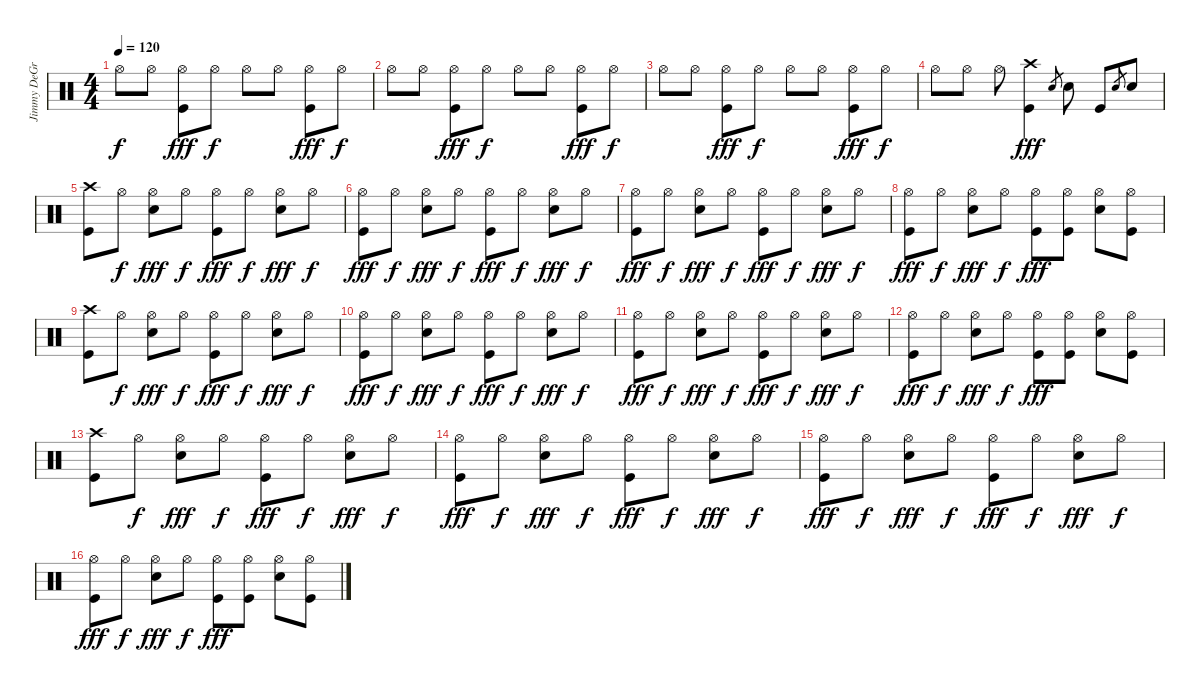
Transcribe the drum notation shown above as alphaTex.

\track ("Jimmy DeGrasso" "Jimmy DeGr") {instrument percussion}
\staff {score}
\articulation defaults
\ts (4 4)
\tempo 120
\clef neutral
\ks c "Hi-Hat (open)".8{dy f} "Hi-Hat (open)".8
("Kick (hit)" "Hi-Hat (open)").8{dy fff} "Hi-Hat (open)".8{dy f} "Hi-Hat (open)".8 "Hi-Hat (open)".8 ("Kick (hit)" "Hi-Hat (open)").8{dy fff} "Hi-Hat (open)".8{dy f} |
"Hi-Hat (open)".8 "Hi-Hat (open)".8 ("Kick (hit)" "Hi-Hat (open)").8{dy fff} "Hi-Hat (open)".8{dy f} "Hi-Hat (open)".8 "Hi-Hat (open)".8 ("Kick (hit)" "Hi-Hat (open)").8{dy fff} "Hi-Hat (open)".8{dy f} |
"Hi-Hat (open)".8 "Hi-Hat (open)".8 ("Kick (hit)" "Hi-Hat (open)").8{dy fff} "Hi-Hat (open)".8{dy f} "Hi-Hat (open)".8 "Hi-Hat (open)".8 ("Kick (hit)" "Hi-Hat (open)").8{dy fff} "Hi-Hat (open)".8{dy f} |
"Hi-Hat (open)".8 "Hi-Hat (open)".8 "Hi-Hat (open)".8 ("Kick (hit)" "Crash high (hit)").4{dy fff} "Electric Snare (hit)".8{gr} "Electric Snare (hit)".8 "Kick (hit)".8 "Electric Snare (hit)".8{gr} "Electric Snare (hit)".8 |
("Kick (hit)" "Crash high (hit)").8 "Hi-Hat (open)".8{dy f} ("Electric Snare (hit)" "Hi-Hat (open)").8{dy fff} "Hi-Hat (open)".8{dy f} ("Kick (hit)" "Hi-Hat (open)").8{dy fff} "Hi-Hat (open)".8{dy f} ("Electric Snare (hit)" "Hi-Hat (open)").8{dy fff} "Hi-Hat (open)".8{dy f} |
("Kick (hit)" "Hi-Hat (open)").8{dy fff} "Hi-Hat (open)".8{dy f} ("Electric Snare (hit)" "Hi-Hat (open)").8{dy fff} "Hi-Hat (open)".8{dy f} ("Kick (hit)" "Hi-Hat (open)").8{dy fff} "Hi-Hat (open)".8{dy f} ("Electric Snare (hit)" "Hi-Hat (open)").8{dy fff} "Hi-Hat (open)".8{dy f} |
("Kick (hit)" "Hi-Hat (open)").8{dy fff} "Hi-Hat (open)".8{dy f} ("Electric Snare (hit)" "Hi-Hat (open)").8{dy fff} "Hi-Hat (open)".8{dy f} ("Kick (hit)" "Hi-Hat (open)").8{dy fff} "Hi-Hat (open)".8{dy f} ("Electric Snare (hit)" "Hi-Hat (open)").8{dy fff} "Hi-Hat (open)".8{dy f} |
("Kick (hit)" "Hi-Hat (open)").8{dy fff} "Hi-Hat (open)".8{dy f} ("Electric Snare (hit)" "Hi-Hat (open)").8{dy fff} "Hi-Hat (open)".8{dy f} ("Kick (hit)" "Hi-Hat (open)").8{dy fff} ("Kick (hit)" "Hi-Hat (open)").8 ("Electric Snare (hit)" "Hi-Hat (open)").8 ("Kick (hit)" "Hi-Hat (open)").8 |
("Kick (hit)" "Crash high (hit)").8 "Hi-Hat (open)".8{dy f} ("Electric Snare (hit)" "Hi-Hat (open)").8{dy fff} "Hi-Hat (open)".8{dy f} ("Kick (hit)" "Hi-Hat (open)").8{dy fff} "Hi-Hat (open)".8{dy f} ("Electric Snare (hit)" "Hi-Hat (open)").8{dy fff} "Hi-Hat (open)".8{dy f} |
("Kick (hit)" "Hi-Hat (open)").8{dy fff} "Hi-Hat (open)".8{dy f} ("Electric Snare (hit)" "Hi-Hat (open)").8{dy fff} "Hi-Hat (open)".8{dy f} ("Kick (hit)" "Hi-Hat (open)").8{dy fff} "Hi-Hat (open)".8{dy f} ("Electric Snare (hit)" "Hi-Hat (open)").8{dy fff} "Hi-Hat (open)".8{dy f} |
("Kick (hit)" "Hi-Hat (open)").8{dy fff} "Hi-Hat (open)".8{dy f} ("Electric Snare (hit)" "Hi-Hat (open)").8{dy fff} "Hi-Hat (open)".8{dy f} ("Kick (hit)" "Hi-Hat (open)").8{dy fff} "Hi-Hat (open)".8{dy f} ("Electric Snare (hit)" "Hi-Hat (open)").8{dy fff} "Hi-Hat (open)".8{dy f} |
("Kick (hit)" "Hi-Hat (open)").8{dy fff} "Hi-Hat (open)".8{dy f} ("Electric Snare (hit)" "Hi-Hat (open)").8{dy fff} "Hi-Hat (open)".8{dy f} ("Kick (hit)" "Hi-Hat (open)").8{dy fff} ("Kick (hit)" "Hi-Hat (open)").8 ("Electric Snare (hit)" "Hi-Hat (open)").8 ("Kick (hit)" "Hi-Hat (open)").8 |
("Kick (hit)" "Crash high (hit)").8 "Hi-Hat (open)".8{dy f} ("Electric Snare (hit)" "Hi-Hat (open)").8{dy fff} "Hi-Hat (open)".8{dy f} ("Kick (hit)" "Hi-Hat (open)").8{dy fff} "Hi-Hat (open)".8{dy f} ("Electric Snare (hit)" "Hi-Hat (open)").8{dy fff} "Hi-Hat (open)".8{dy f} |
("Kick (hit)" "Hi-Hat (open)").8{dy fff} "Hi-Hat (open)".8{dy f} ("Electric Snare (hit)" "Hi-Hat (open)").8{dy fff} "Hi-Hat (open)".8{dy f} ("Kick (hit)" "Hi-Hat (open)").8{dy fff} "Hi-Hat (open)".8{dy f} ("Electric Snare (hit)" "Hi-Hat (open)").8{dy fff} "Hi-Hat (open)".8{dy f} |
("Kick (hit)" "Hi-Hat (open)").8{dy fff} "Hi-Hat (open)".8{dy f} ("Electric Snare (hit)" "Hi-Hat (open)").8{dy fff} "Hi-Hat (open)".8{dy f} ("Kick (hit)" "Hi-Hat (open)").8{dy fff} "Hi-Hat (open)".8{dy f} ("Electric Snare (hit)" "Hi-Hat (open)").8{dy fff} "Hi-Hat (open)".8{dy f} |
("Kick (hit)" "Hi-Hat (open)").8{dy fff} "Hi-Hat (open)".8{dy f} ("Electric Snare (hit)" "Hi-Hat (open)").8{dy fff} "Hi-Hat (open)".8{dy f} ("Kick (hit)" "Hi-Hat (open)").8{dy fff} ("Kick (hit)" "Hi-Hat (open)").8 ("Electric Snare (hit)" "Hi-Hat (open)").8 ("Kick (hit)" "Hi-Hat (open)").8
